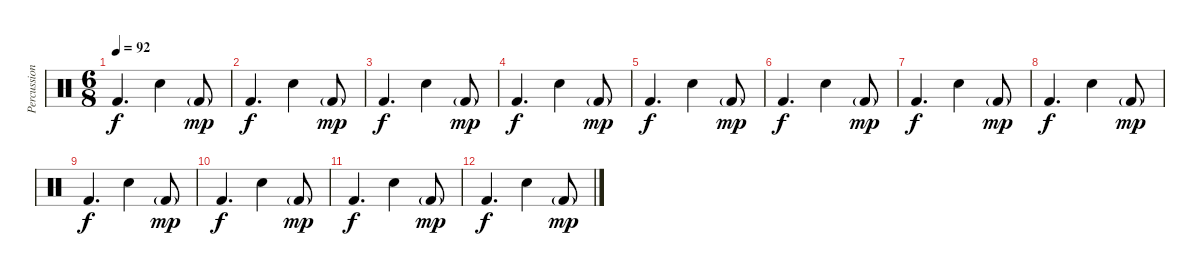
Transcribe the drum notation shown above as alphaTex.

\track ("Percussion" "Percussion") {instrument percussion}
\staff {score}
\articulation defaults
\ts (6 8)
\tempo 92
\clef neutral
\ks c "Kick (hit) 2".4{d dy f} "Snare (hit) 2".4 "Kick (hit) 2"{g}.8{dy mp}
|
"Kick (hit) 2".4{d dy f} "Snare (hit) 2".4 "Kick (hit) 2"{g}.8{dy mp} |
"Kick (hit) 2".4{d dy f} "Snare (hit) 2".4 "Kick (hit) 2"{g}.8{dy mp} |
"Kick (hit) 2".4{d dy f} "Snare (hit) 2".4 "Kick (hit) 2"{g}.8{dy mp} |
"Kick (hit) 2".4{d dy f} "Snare (hit) 2".4 "Kick (hit) 2"{g}.8{dy mp} |
"Kick (hit) 2".4{d dy f} "Snare (hit) 2".4 "Kick (hit) 2"{g}.8{dy mp} |
"Kick (hit) 2".4{d dy f} "Snare (hit) 2".4 "Kick (hit) 2"{g}.8{dy mp} |
"Kick (hit) 2".4{d dy f} "Snare (hit) 2".4 "Kick (hit) 2"{g}.8{dy mp} |
"Kick (hit) 2".4{d dy f} "Snare (hit) 2".4 "Kick (hit) 2"{g}.8{dy mp} |
"Kick (hit) 2".4{d dy f} "Snare (hit) 2".4 "Kick (hit) 2"{g}.8{dy mp} |
"Kick (hit) 2".4{d dy f} "Snare (hit) 2".4 "Kick (hit) 2"{g}.8{dy mp} |
"Kick (hit) 2".4{d dy f} "Snare (hit) 2".4 "Kick (hit) 2"{g}.8{dy mp}
